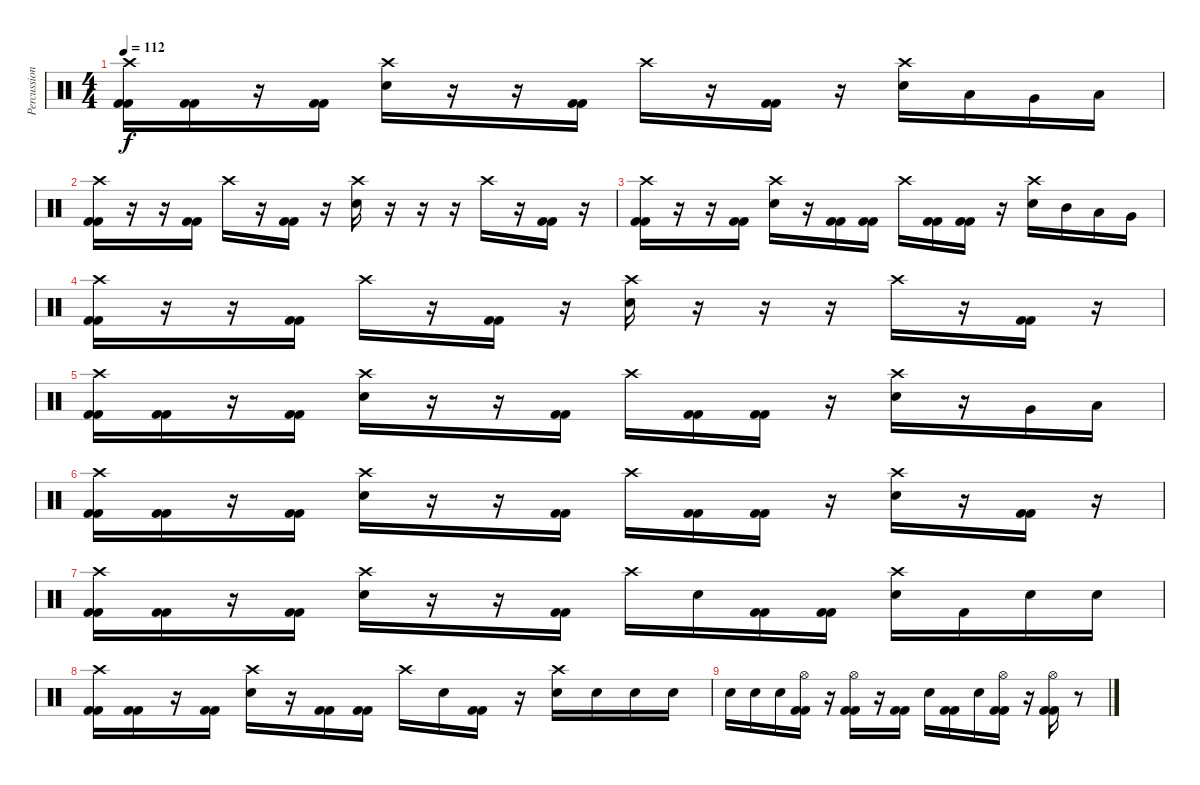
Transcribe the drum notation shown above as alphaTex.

\track ("Percussion" "Percussion") {instrument percussion}
\staff {score}
\articulation defaults
\ts (4 4)
\tempo 112
\clef neutral
\ks c
("Crash high (hit)" "Kick (hit) 2" "Kick (hit) 2").16{dy f} ("Kick (hit) 2" "Kick (hit) 2").16 r.16 ("Kick (hit) 2" "Kick (hit) 2").16 ("Crash high (hit)" "Electric Snare (hit)").16 r.16 r.16 ("Kick (hit) 2" "Kick (hit) 2").16 "Crash high (hit)".16 r.16 ("Kick (hit) 2" "Kick (hit) 2").16 r.16 ("Crash high (hit)" "Electric Snare (hit)").16 "Low Tom (hit)".16 "Very Low Tom (hit)".16 "Low Floor Tom (hit)".16 |
("Crash high (hit)" "Kick (hit) 2" "Kick (hit) 2").16 r.16 r.16 ("Kick (hit) 2" "Kick (hit) 2").16 "Crash high (hit)".16 r.16 ("Kick (hit) 2" "Kick (hit) 2").16 r.16 ("Crash high (hit)" "Electric Snare (hit)").16 r.16 r.16 r.16 "Crash high (hit)".16 r.16 ("Kick (hit) 2" "Kick (hit) 2").16 r.16 |
("Crash high (hit)" "Kick (hit) 2" "Kick (hit) 2").16 r.16 r.16 ("Kick (hit) 2" "Kick (hit) 2").16 ("Crash high (hit)" "Electric Snare (hit)").16 r.16 ("Kick (hit) 2" "Kick (hit) 2").16 ("Kick (hit) 2" "Kick (hit) 2").16 "Crash high (hit)".16 ("Kick (hit) 2" "Kick (hit) 2").16 ("Kick (hit) 2" "Kick (hit) 2").16 r.16 ("Crash high (hit)" "Electric Snare (hit)").16 "Mid Tom (hit)".16 "Low Tom (hit)".16 "Very Low Tom (hit)".16 |
("Crash high (hit)" "Kick (hit) 2" "Kick (hit) 2").16 r.16 r.16 ("Kick (hit) 2" "Kick (hit) 2").16 "Crash high (hit)".16 r.16 ("Kick (hit) 2" "Kick (hit) 2").16 r.16 ("Crash high (hit)" "Electric Snare (hit)").16 r.16 r.16 r.16 "Crash high (hit)".16 r.16 ("Kick (hit) 2" "Kick (hit) 2").16 r.16 |
("Crash high (hit)" "Kick (hit) 2" "Kick (hit) 2").16 ("Kick (hit) 2" "Kick (hit) 2").16 r.16 ("Kick (hit) 2" "Kick (hit) 2").16 ("Crash high (hit)" "Electric Snare (hit)").16 r.16 r.16 ("Kick (hit) 2" "Kick (hit) 2").16 "Crash high (hit)".16 ("Kick (hit) 2" "Kick (hit) 2").16 ("Kick (hit) 2" "Kick (hit) 2").16 r.16 ("Crash high (hit)" "Electric Snare (hit)").16 r.16 "Very Low Tom (hit)".16 "Low Floor Tom (hit)".16 |
("Crash high (hit)" "Kick (hit) 2" "Kick (hit) 2").16 ("Kick (hit) 2" "Kick (hit) 2").16 r.16 ("Kick (hit) 2" "Kick (hit) 2").16 ("Crash high (hit)" "Electric Snare (hit)").16 r.16 r.16 ("Kick (hit) 2" "Kick (hit) 2").16 "Crash high (hit)".16 ("Kick (hit) 2" "Kick (hit) 2").16 ("Kick (hit) 2" "Kick (hit) 2").16 r.16 ("Crash high (hit)" "Electric Snare (hit)").16 r.16 ("Kick (hit) 2" "Kick (hit) 2").16 r.16 |
("Crash high (hit)" "Kick (hit) 2" "Kick (hit) 2").16 ("Kick (hit) 2" "Kick (hit) 2").16 r.16 ("Kick (hit) 2" "Kick (hit) 2").16 ("Crash high (hit)" "Electric Snare (hit)").16 r.16 r.16 ("Kick (hit) 2" "Kick (hit) 2").16 "Crash high (hit)".16 "Electric Snare (hit)".16 ("Kick (hit) 2" "Kick (hit) 2").16 ("Kick (hit) 2" "Kick (hit) 2").16 ("Crash high (hit)" "Electric Snare (hit)").16 "Kick (hit) 2".16 "Electric Snare (hit)".16 "Electric Snare (hit)".16 |
("Crash high (hit)" "Kick (hit) 2" "Kick (hit) 2").16 ("Kick (hit) 2" "Kick (hit) 2").16 r.16 ("Kick (hit) 2" "Kick (hit) 2").16 ("Crash high (hit)" "Electric Snare (hit)").16 r.16 ("Kick (hit) 2" "Kick (hit) 2").16 ("Kick (hit) 2" "Kick (hit) 2").16 "Crash high (hit)".16 "Electric Snare (hit)".16 ("Kick (hit) 2" "Kick (hit) 2").16 r.16 ("Crash high (hit)" "Electric Snare (hit)").16 "Electric Snare (hit)".16 "Electric Snare (hit)".16 "Electric Snare (hit)".16 |
"Electric Snare (hit)".16 "Electric Snare (hit)".16 "Electric Snare (hit)".16 ("Hi-Hat (open)" "Kick (hit) 2" "Kick (hit) 2").16 r.16 ("Hi-Hat (open)" "Kick (hit) 2" "Kick (hit) 2").16 r.16 ("Kick (hit) 2" "Kick (hit) 2").16 "Electric Snare (hit)".16 ("Kick (hit) 2" "Kick (hit) 2").16 "Electric Snare (hit)".16 ("Hi-Hat (open)" "Kick (hit) 2" "Kick (hit) 2").16 r.16 ("Hi-Hat (open)" "Kick (hit) 2" "Kick (hit) 2").16 r.8
